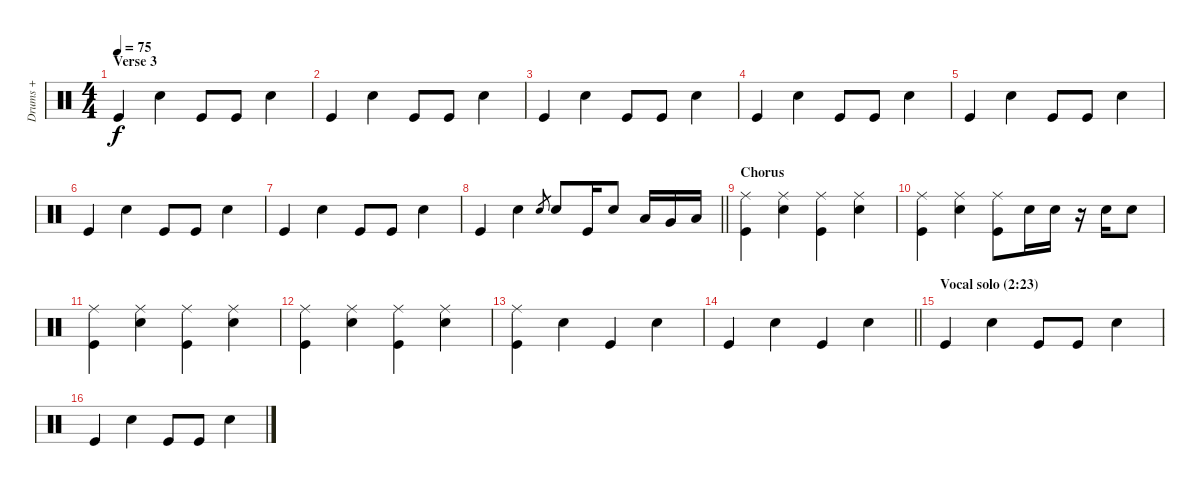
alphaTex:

\track ("Drums +" "Drums +") {instrument percussion}
\staff {score}
\articulation defaults
\ts (4 4)
\section ("" "Verse 3")
\tempo 75
\clef neutral
\ks c "Kick (hit)".4{dy f} "Snare (hit) 2".4 "Kick (hit)".8 "Kick (hit)".8 "Snare (hit) 2".4
|
"Kick (hit)".4 "Snare (hit) 2".4 "Kick (hit)".8 "Kick (hit)".8 "Snare (hit) 2".4 |
"Kick (hit)".4 "Snare (hit) 2".4 "Kick (hit)".8 "Kick (hit)".8 "Snare (hit) 2".4 |
"Kick (hit)".4 "Snare (hit) 2".4 "Kick (hit)".8 "Kick (hit)".8 "Snare (hit) 2".4 |
"Kick (hit)".4 "Snare (hit) 2".4 "Kick (hit)".8 "Kick (hit)".8 "Snare (hit) 2".4 |
"Kick (hit)".4 "Snare (hit) 2".4 "Kick (hit)".8 "Kick (hit)".8 "Snare (hit) 2".4 |
"Kick (hit)".4 "Snare (hit) 2".4 "Kick (hit)".8 "Kick (hit)".8 "Snare (hit) 2".4 |
\barLineRight lightlight "Kick (hit)".4 "Snare (hit) 2".4 "Snare (hit) 2".8{gr} "Snare (hit) 2".8 "Kick (hit)".16 "Snare (hit) 2".8 "Low Tom (hit)".16 "Very Low Tom (hit)".16 "Low Floor Tom (hit)".16
|
\section ("" "Chorus")
("Ride (middle)" "Kick (hit)").4 ("Ride (middle)" "Snare (hit) 2").4 ("Ride (middle)" "Kick (hit)").4 ("Ride (middle)" "Snare (hit) 2").4 |
("Ride (middle)" "Kick (hit)").4 ("Ride (middle)" "Snare (hit) 2").4 ("Ride (middle)" "Kick (hit)").8 "Snare (hit) 2".16 "Snare (hit) 2".16 r.16 "Snare (hit) 2".16 "Snare (hit) 2".8 |
("Ride (middle)" "Kick (hit)").4 ("Ride (middle)" "Snare (hit) 2").4 ("Ride (middle)" "Kick (hit)").4 ("Ride (middle)" "Snare (hit) 2").4 |
("Ride (middle)" "Kick (hit)").4 ("Ride (middle)" "Snare (hit) 2").4 ("Ride (middle)" "Kick (hit)").4 ("Ride (middle)" "Snare (hit) 2").4 |
("Ride (middle)" "Kick (hit)").4 "Snare (hit) 2".4 "Kick (hit)".4 "Snare (hit) 2".4 |
\barLineRight lightlight "Kick (hit)".4 "Snare (hit) 2".4 "Kick (hit)".4 "Snare (hit) 2".4
|
\section ("" "Vocal solo (2:23)")
"Kick (hit)".4 "Snare (hit) 2".4 "Kick (hit)".8 "Kick (hit)".8 "Snare (hit) 2".4 |
"Kick (hit)".4 "Snare (hit) 2".4 "Kick (hit)".8 "Kick (hit)".8 "Snare (hit) 2".4
